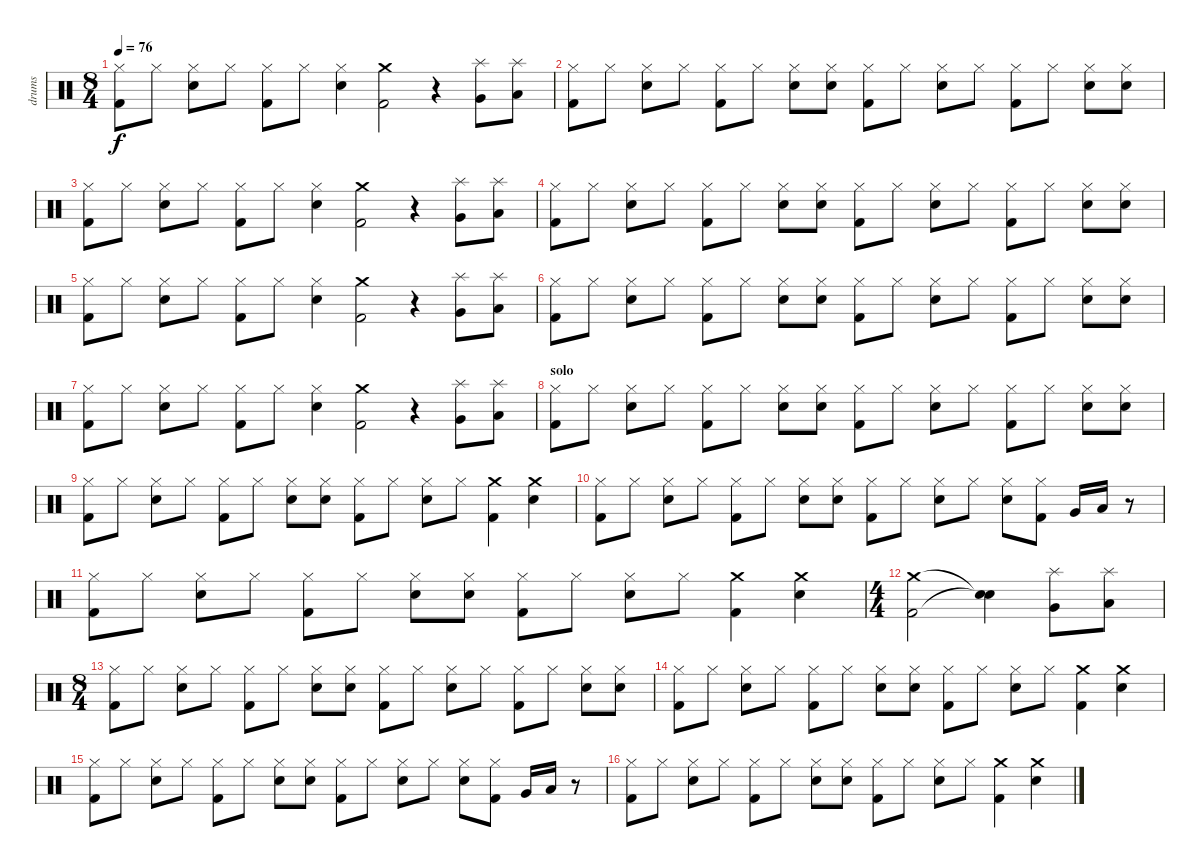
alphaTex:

\track ("drums" "drums") {instrument percussion}
\staff {score}
\articulation defaults
\ts (8 4)
\tempo 76
\clef neutral
\ks c
("Kick (hit) 2" "Hi-Hat (closed)").8{dy f} "Hi-Hat (closed)".8 ("Electric Snare (hit)" "Hi-Hat (closed)").8 "Hi-Hat (closed)".8 ("Kick (hit) 2" "Hi-Hat (closed)").8 "Hi-Hat (closed)".8 ("Electric Snare (hit)" "Hi-Hat (closed)").4 ("Kick (hit) 2" "Crash medium (hit)").2 r.4 ("Very Low Tom (hit)" "Splash (hit)").8 ("Low Floor Tom (hit)" "Splash (hit)").8 |
("Kick (hit) 2" "Hi-Hat (closed)").8 "Hi-Hat (closed)".8 ("Electric Snare (hit)" "Hi-Hat (closed)").8 "Hi-Hat (closed)".8 ("Kick (hit) 2" "Hi-Hat (closed)").8 "Hi-Hat (closed)".8 ("Electric Snare (hit)" "Hi-Hat (closed)").8 ("Electric Snare (hit)" "Hi-Hat (closed)").8 ("Kick (hit) 2" "Hi-Hat (closed)").8 "Hi-Hat (closed)".8 ("Electric Snare (hit)" "Hi-Hat (closed)").8 "Hi-Hat (closed)".8 ("Kick (hit) 2" "Hi-Hat (closed)").8 "Hi-Hat (closed)".8 ("Electric Snare (hit)" "Hi-Hat (closed)").8 ("Electric Snare (hit)" "Hi-Hat (closed)").8 |
("Kick (hit) 2" "Hi-Hat (closed)").8 "Hi-Hat (closed)".8 ("Electric Snare (hit)" "Hi-Hat (closed)").8 "Hi-Hat (closed)".8 ("Kick (hit) 2" "Hi-Hat (closed)").8 "Hi-Hat (closed)".8 ("Electric Snare (hit)" "Hi-Hat (closed)").4 ("Kick (hit) 2" "Crash medium (hit)").2 r.4 ("Very Low Tom (hit)" "Splash (hit)").8 ("Low Floor Tom (hit)" "Splash (hit)").8 |
("Kick (hit) 2" "Hi-Hat (closed)").8 "Hi-Hat (closed)".8 ("Electric Snare (hit)" "Hi-Hat (closed)").8 "Hi-Hat (closed)".8 ("Kick (hit) 2" "Hi-Hat (closed)").8 "Hi-Hat (closed)".8 ("Electric Snare (hit)" "Hi-Hat (closed)").8 ("Electric Snare (hit)" "Hi-Hat (closed)").8 ("Kick (hit) 2" "Hi-Hat (closed)").8 "Hi-Hat (closed)".8 ("Electric Snare (hit)" "Hi-Hat (closed)").8 "Hi-Hat (closed)".8 ("Kick (hit) 2" "Hi-Hat (closed)").8 "Hi-Hat (closed)".8 ("Electric Snare (hit)" "Hi-Hat (closed)").8 ("Electric Snare (hit)" "Hi-Hat (closed)").8 |
("Kick (hit) 2" "Hi-Hat (closed)").8 "Hi-Hat (closed)".8 ("Electric Snare (hit)" "Hi-Hat (closed)").8 "Hi-Hat (closed)".8 ("Kick (hit) 2" "Hi-Hat (closed)").8 "Hi-Hat (closed)".8 ("Electric Snare (hit)" "Hi-Hat (closed)").4 ("Kick (hit) 2" "Crash medium (hit)").2 r.4 ("Very Low Tom (hit)" "Splash (hit)").8 ("Low Floor Tom (hit)" "Splash (hit)").8 |
("Kick (hit) 2" "Hi-Hat (closed)").8 "Hi-Hat (closed)".8 ("Electric Snare (hit)" "Hi-Hat (closed)").8 "Hi-Hat (closed)".8 ("Kick (hit) 2" "Hi-Hat (closed)").8 "Hi-Hat (closed)".8 ("Electric Snare (hit)" "Hi-Hat (closed)").8 ("Electric Snare (hit)" "Hi-Hat (closed)").8 ("Kick (hit) 2" "Hi-Hat (closed)").8 "Hi-Hat (closed)".8 ("Electric Snare (hit)" "Hi-Hat (closed)").8 "Hi-Hat (closed)".8 ("Kick (hit) 2" "Hi-Hat (closed)").8 "Hi-Hat (closed)".8 ("Electric Snare (hit)" "Hi-Hat (closed)").8 ("Electric Snare (hit)" "Hi-Hat (closed)").8 |
("Kick (hit) 2" "Hi-Hat (closed)").8 "Hi-Hat (closed)".8 ("Electric Snare (hit)" "Hi-Hat (closed)").8 "Hi-Hat (closed)".8 ("Kick (hit) 2" "Hi-Hat (closed)").8 "Hi-Hat (closed)".8 ("Electric Snare (hit)" "Hi-Hat (closed)").4 ("Kick (hit) 2" "Crash medium (hit)").2 r.4 ("Very Low Tom (hit)" "Splash (hit)").8 ("Low Floor Tom (hit)" "Splash (hit)").8 |
\section ("" "solo")
("Kick (hit) 2" "Hi-Hat (closed)").8 "Hi-Hat (closed)".8 ("Electric Snare (hit)" "Hi-Hat (closed)").8 "Hi-Hat (closed)".8 ("Kick (hit) 2" "Hi-Hat (closed)").8 "Hi-Hat (closed)".8 ("Electric Snare (hit)" "Hi-Hat (closed)").8 ("Electric Snare (hit)" "Hi-Hat (closed)").8 ("Kick (hit) 2" "Hi-Hat (closed)").8 "Hi-Hat (closed)".8 ("Electric Snare (hit)" "Hi-Hat (closed)").8 "Hi-Hat (closed)".8 ("Kick (hit) 2" "Hi-Hat (closed)").8 "Hi-Hat (closed)".8 ("Electric Snare (hit)" "Hi-Hat (closed)").8 ("Electric Snare (hit)" "Hi-Hat (closed)").8 |
("Kick (hit) 2" "Hi-Hat (closed)").8 "Hi-Hat (closed)".8 ("Electric Snare (hit)" "Hi-Hat (closed)").8 "Hi-Hat (closed)".8 ("Kick (hit) 2" "Hi-Hat (closed)").8 "Hi-Hat (closed)".8 ("Electric Snare (hit)" "Hi-Hat (closed)").8 ("Electric Snare (hit)" "Hi-Hat (closed)").8 ("Kick (hit) 2" "Hi-Hat (closed)").8 "Hi-Hat (closed)".8 ("Electric Snare (hit)" "Hi-Hat (closed)").8 "Hi-Hat (closed)".8 ("Kick (hit) 2" "Crash medium (hit)").4 ("Electric Snare (hit)" "Crash medium (hit)").4 |
("Kick (hit) 2" "Hi-Hat (closed)").8 "Hi-Hat (closed)".8 ("Electric Snare (hit)" "Hi-Hat (closed)").8 "Hi-Hat (closed)".8 ("Kick (hit) 2" "Hi-Hat (closed)").8 "Hi-Hat (closed)".8 ("Electric Snare (hit)" "Hi-Hat (closed)").8 ("Electric Snare (hit)" "Hi-Hat (closed)").8 ("Kick (hit) 2" "Hi-Hat (closed)").8 "Hi-Hat (closed)".8 ("Electric Snare (hit)" "Hi-Hat (closed)").8 "Hi-Hat (closed)".8 ("Electric Snare (hit)" "Hi-Hat (closed)").8 ("Kick (hit) 2" "Hi-Hat (closed)").8 "Very Low Tom (hit)".16 "Low Floor Tom (hit)".16 r.8 |
("Kick (hit) 2" "Hi-Hat (closed)").8 "Hi-Hat (closed)".8 ("Electric Snare (hit)" "Hi-Hat (closed)").8 "Hi-Hat (closed)".8 ("Kick (hit) 2" "Hi-Hat (closed)").8 "Hi-Hat (closed)".8 ("Electric Snare (hit)" "Hi-Hat (closed)").8 ("Electric Snare (hit)" "Hi-Hat (closed)").8 ("Kick (hit) 2" "Hi-Hat (closed)").8 "Hi-Hat (closed)".8 ("Electric Snare (hit)" "Hi-Hat (closed)").8 "Hi-Hat (closed)".8 ("Kick (hit) 2" "Crash medium (hit)").4 ("Electric Snare (hit)" "Crash medium (hit)").4 |
\ts (4 4)
("Crash medium (hit)" "Kick (hit) 2").2 ("Snare (hit)"{t} "Snare (hit)"{t}).4 ("Very Low Tom (hit)" "Splash (hit)").8 ("Low Floor Tom (hit)" "Splash (hit)").8 |
\ts (8 4)
("Kick (hit) 2" "Hi-Hat (closed)").8 "Hi-Hat (closed)".8 ("Electric Snare (hit)" "Hi-Hat (closed)").8 "Hi-Hat (closed)".8 ("Kick (hit) 2" "Hi-Hat (closed)").8 "Hi-Hat (closed)".8 ("Electric Snare (hit)" "Hi-Hat (closed)").8 ("Electric Snare (hit)" "Hi-Hat (closed)").8 ("Kick (hit) 2" "Hi-Hat (closed)").8 "Hi-Hat (closed)".8 ("Electric Snare (hit)" "Hi-Hat (closed)").8 "Hi-Hat (closed)".8 ("Kick (hit) 2" "Hi-Hat (closed)").8 "Hi-Hat (closed)".8 ("Electric Snare (hit)" "Hi-Hat (closed)").8 ("Electric Snare (hit)" "Hi-Hat (closed)").8 |
("Kick (hit) 2" "Hi-Hat (closed)").8 "Hi-Hat (closed)".8 ("Electric Snare (hit)" "Hi-Hat (closed)").8 "Hi-Hat (closed)".8 ("Kick (hit) 2" "Hi-Hat (closed)").8 "Hi-Hat (closed)".8 ("Electric Snare (hit)" "Hi-Hat (closed)").8 ("Electric Snare (hit)" "Hi-Hat (closed)").8 ("Kick (hit) 2" "Hi-Hat (closed)").8 "Hi-Hat (closed)".8 ("Electric Snare (hit)" "Hi-Hat (closed)").8 "Hi-Hat (closed)".8 ("Kick (hit) 2" "Crash medium (hit)").4 ("Electric Snare (hit)" "Crash medium (hit)").4 |
("Kick (hit) 2" "Hi-Hat (closed)").8 "Hi-Hat (closed)".8 ("Electric Snare (hit)" "Hi-Hat (closed)").8 "Hi-Hat (closed)".8 ("Kick (hit) 2" "Hi-Hat (closed)").8 "Hi-Hat (closed)".8 ("Electric Snare (hit)" "Hi-Hat (closed)").8 ("Electric Snare (hit)" "Hi-Hat (closed)").8 ("Kick (hit) 2" "Hi-Hat (closed)").8 "Hi-Hat (closed)".8 ("Electric Snare (hit)" "Hi-Hat (closed)").8 "Hi-Hat (closed)".8 ("Electric Snare (hit)" "Hi-Hat (closed)").8 ("Kick (hit) 2" "Hi-Hat (closed)").8 "Very Low Tom (hit)".16 "Low Floor Tom (hit)".16 r.8 |
("Kick (hit) 2" "Hi-Hat (closed)").8 "Hi-Hat (closed)".8 ("Electric Snare (hit)" "Hi-Hat (closed)").8 "Hi-Hat (closed)".8 ("Kick (hit) 2" "Hi-Hat (closed)").8 "Hi-Hat (closed)".8 ("Electric Snare (hit)" "Hi-Hat (closed)").8 ("Electric Snare (hit)" "Hi-Hat (closed)").8 ("Kick (hit) 2" "Hi-Hat (closed)").8 "Hi-Hat (closed)".8 ("Electric Snare (hit)" "Hi-Hat (closed)").8 "Hi-Hat (closed)".8 ("Kick (hit) 2" "Crash medium (hit)").4 ("Electric Snare (hit)" "Crash medium (hit)").4
